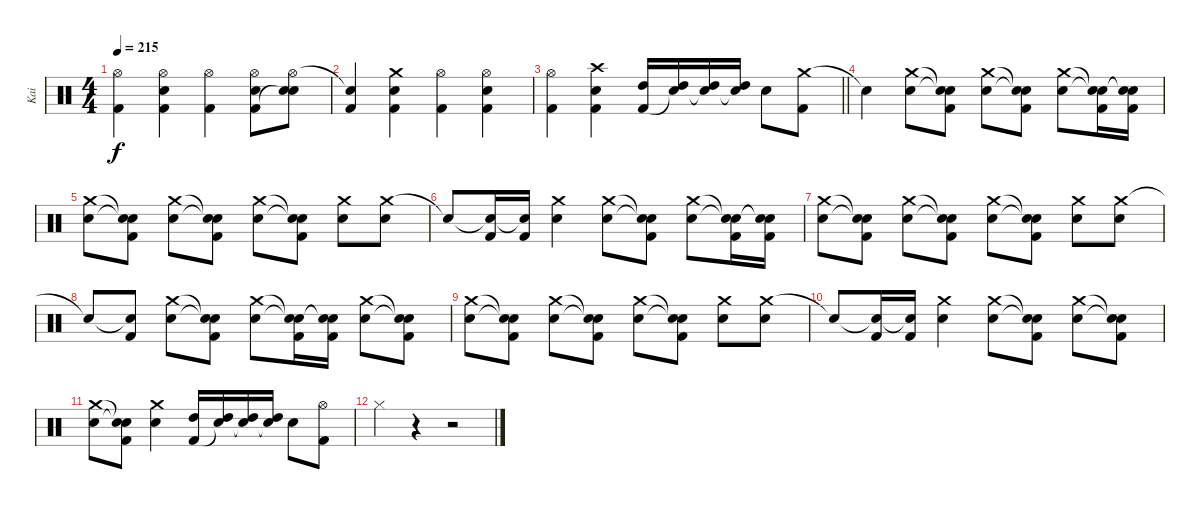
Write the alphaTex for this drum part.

\track ("Kai" "Kai") {instrument percussion}
\staff {score}
\articulation defaults
\ts (4 4)
\tempo 215
\clef neutral
\ks c
("Hi-Hat (open)" "Kick (hit) 2").4{dy f} ("Hi-Hat (open)" "Snare (hit) 2" "Kick (hit) 2").4 ("Hi-Hat (open)" "Kick (hit) 2").4 ("Hi-Hat (open)" "Snare (hit) 2" "Kick (hit) 2").8 ("Hi-Hat (open)" "Snare (hit) 2" "Snare (hit)"{t}).8 |
("Snare (hit)"{t} "Kick (hit) 2").4 ("Crash medium (hit)" "Snare (hit) 2" "Kick (hit) 2").4 ("Hi-Hat (open)" "Kick (hit) 2").4 ("Hi-Hat (open)" "Snare (hit) 2" "Kick (hit) 2").4 |
\barLineRight lightlight
("Hi-Hat (open)" "Kick (hit) 2").4 ("Crash high (hit)" "Snare (hit) 2" "Kick (hit) 2").4 ("High Tom (hit)" "Kick (hit) 2").16 ("High Tom (hit)" "Snare (hit)"{t}).16 ("High Tom (hit)" "Snare (hit)"{t}).16 ("High Tom (hit)" "Snare (hit)"{t}).16 "Snare (hit) 2".8 ("Crash medium (hit)" "Kick (hit) 2").8 |
"Snare (hit)"{t}.4 ("Crash medium (hit)" "Snare (hit) 2").8 ("Snare (hit)"{t} "Snare (hit)"{t} "Kick (hit) 2").8 ("Crash medium (hit)" "Snare (hit) 2").8 ("Snare (hit)"{t} "Snare (hit)"{t} "Kick (hit) 2").8 ("Crash medium (hit)" "Snare (hit) 2").8 ("Snare (hit)"{t} "Snare (hit)"{t} "Kick (hit) 2").16 ("Snare (hit)"{t} "Snare (hit)"{t} "Kick (hit) 2").16 |
("Crash medium (hit)" "Snare (hit) 2").8 ("Snare (hit)"{t} "Snare (hit)"{t} "Kick (hit) 2").8 ("Crash medium (hit)" "Snare (hit) 2").8 ("Snare (hit)"{t} "Snare (hit)"{t} "Kick (hit) 2").8 ("Crash medium (hit)" "Snare (hit) 2").8 ("Snare (hit)"{t} "Snare (hit)"{t} "Kick (hit) 2").8 ("Crash medium (hit)" "Snare (hit) 2").8 ("Crash medium (hit)" "Snare (hit) 2").8 |
"Snare (hit)"{t}.8 ("Snare (hit)"{t} "Kick (hit) 2").16 ("Snare (hit)"{t} "Kick (hit) 2").16 ("Crash medium (hit)" "Snare (hit) 2").4 ("Crash medium (hit)" "Snare (hit) 2").8 ("Snare (hit)"{t} "Snare (hit)"{t} "Kick (hit) 2").8 ("Crash medium (hit)" "Snare (hit) 2").8 ("Snare (hit)"{t} "Snare (hit)"{t} "Kick (hit) 2").16 ("Snare (hit)"{t} "Snare (hit)"{t} "Kick (hit) 2").16 |
("Crash medium (hit)" "Snare (hit) 2").8 ("Snare (hit)"{t} "Snare (hit)"{t} "Kick (hit) 2").8 ("Crash medium (hit)" "Snare (hit) 2").8 ("Snare (hit)"{t} "Snare (hit)"{t} "Kick (hit) 2").8 ("Crash medium (hit)" "Snare (hit) 2").8 ("Snare (hit)"{t} "Snare (hit)"{t} "Kick (hit) 2").8 ("Crash medium (hit)" "Snare (hit) 2").8 ("Crash medium (hit)" "Snare (hit) 2").8 |
"Snare (hit)"{t}.8 ("Snare (hit)"{t} "Kick (hit) 2").8 ("Crash medium (hit)" "Snare (hit) 2").8 ("Snare (hit)"{t} "Snare (hit)"{t} "Kick (hit) 2").8 ("Crash medium (hit)" "Snare (hit) 2").8 ("Snare (hit)"{t} "Snare (hit)"{t} "Kick (hit) 2").16 ("Snare (hit)"{t} "Snare (hit)"{t} "Kick (hit) 2").16 ("Crash medium (hit)" "Snare (hit) 2").8 ("Snare (hit)"{t} "Snare (hit)"{t} "Kick (hit) 2").8 |
("Crash medium (hit)" "Snare (hit) 2").8 ("Snare (hit)"{t} "Snare (hit)"{t} "Kick (hit) 2").8 ("Crash medium (hit)" "Snare (hit) 2").8 ("Snare (hit)"{t} "Snare (hit)"{t} "Kick (hit) 2").8 ("Crash medium (hit)" "Snare (hit) 2").8 ("Snare (hit)"{t} "Snare (hit)"{t} "Kick (hit) 2").8 ("Crash medium (hit)" "Snare (hit) 2").8 ("Crash medium (hit)" "Snare (hit) 2").8 |
"Snare (hit)"{t}.8 ("Snare (hit)"{t} "Kick (hit) 2").16 ("Snare (hit)"{t} "Kick (hit) 2").16 ("Crash medium (hit)" "Snare (hit) 2").4 ("Crash medium (hit)" "Snare (hit) 2").8 ("Snare (hit)"{t} "Snare (hit)"{t} "Kick (hit) 2").8 ("Crash medium (hit)" "Snare (hit) 2").8 ("Snare (hit)"{t} "Snare (hit)"{t} "Kick (hit) 2").8 |
("Crash medium (hit)" "Snare (hit) 2").8 ("Snare (hit)"{t} "Snare (hit)"{t} "Kick (hit) 2").8 ("Crash medium (hit)" "Snare (hit) 2").4 ("High Tom (hit)" "Kick (hit) 2").16 ("High Tom (hit)" "Snare (hit)"{t}).16 ("High Tom (hit)" "Snare (hit)"{t}).16 ("High Tom (hit)" "Snare (hit)"{t}).16 "Snare (hit) 2".8 ("Hi-Hat (open)" "Kick (hit) 2").8 |
"Hi-Hat (closed)".4 r.4 r.2
